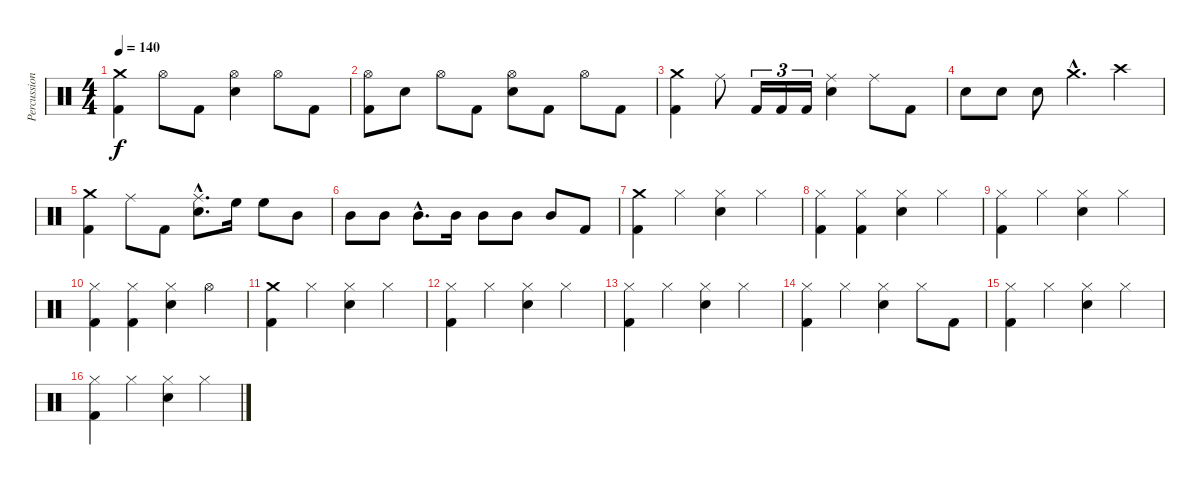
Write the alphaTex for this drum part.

\track ("Percussion" "Percussion") {instrument percussion}
\staff {score}
\articulation defaults
\ts (4 4)
\tempo 140
\clef neutral
\ks c
("Crash medium (hit)" "Kick (hit) 2").4{dy f} "Hi-Hat (open)".8 "Kick (hit) 2".8 ("Hi-Hat (open)" "Snare (hit) 2").4 "Hi-Hat (open)".8 "Kick (hit) 2".8 |
("Hi-Hat (open)" "Kick (hit) 2").8 "Snare (hit) 2".8 "Hi-Hat (open)".8 "Kick (hit) 2".8 ("Hi-Hat (open)" "Snare (hit) 2").8 "Kick (hit) 2".8 "Hi-Hat (open)".8 "Kick (hit) 2".8 |
("Crash medium (hit)" "Kick (hit) 2").4 "Ride (middle)".8 "Kick (hit) 2".16{tu (3 2)} "Kick (hit) 2".16{tu (3 2)} "Kick (hit) 2".16{tu (3 2)} ("Ride (middle)" "Snare (hit) 2").4 "Ride (middle)".8 "Kick (hit) 2".8 |
"Snare (hit) 2".8 "Snare (hit) 2".8 "Snare (hit) 2".8 "Crash medium (hit)"{hac}.4{d} "Crash high (hit)".4 |
("Crash medium (hit)" "Kick (hit) 2").4 "Ride (middle)".8 "Kick (hit) 2".8 ("Ride (middle)"{hac} "Snare (hit) 2"{hac}).8{d} "High Floor Tom (hit)".16 "High Floor Tom (hit)".8 "Mid Tom (hit)".8 |
"Mid Tom (hit)".8 "Mid Tom (hit)".8 "Mid Tom (hit)"{hac}.8{d} "Mid Tom (hit)".16 "Mid Tom (hit)".8 "Mid Tom (hit)".8 "Mid Tom (hit)".8 "Kick (hit) 2".8 |
("Crash medium (hit)" "Kick (hit) 2").4 "Hi-Hat (closed)".4 ("Hi-Hat (closed)" "Snare (hit) 2").4 "Hi-Hat (closed)".4 |
("Hi-Hat (closed)" "Kick (hit) 2").4 ("Hi-Hat (closed)" "Kick (hit) 2").4 ("Hi-Hat (closed)" "Snare (hit) 2").4 "Hi-Hat (closed)".4 |
("Hi-Hat (closed)" "Kick (hit) 2").4 "Hi-Hat (closed)".4 ("Hi-Hat (closed)" "Snare (hit) 2").4 "Hi-Hat (closed)".4 |
("Hi-Hat (closed)" "Kick (hit) 2").4 ("Hi-Hat (closed)" "Kick (hit) 2").4 ("Hi-Hat (closed)" "Snare (hit) 2").4 "Hi-Hat (open)".4 |
("Crash medium (hit)" "Kick (hit) 2").4 "Hi-Hat (closed)".4 ("Hi-Hat (closed)" "Snare (hit) 2").4 "Hi-Hat (closed)".4 |
("Hi-Hat (closed)" "Kick (hit) 2").4 "Hi-Hat (closed)".4 ("Hi-Hat (closed)" "Snare (hit) 2").4 "Hi-Hat (closed)".4 |
("Hi-Hat (closed)" "Kick (hit) 2").4 "Hi-Hat (closed)".4 ("Hi-Hat (closed)" "Snare (hit) 2").4 "Hi-Hat (closed)".4 |
("Hi-Hat (closed)" "Kick (hit) 2").4 "Hi-Hat (closed)".4 ("Hi-Hat (closed)" "Snare (hit) 2").4 "Hi-Hat (closed)".8 "Kick (hit) 2".8 |
("Hi-Hat (closed)" "Kick (hit) 2").4 "Hi-Hat (closed)".4 ("Hi-Hat (closed)" "Snare (hit) 2").4 "Hi-Hat (closed)".4 |
("Hi-Hat (closed)" "Kick (hit) 2").4 "Hi-Hat (closed)".4 ("Hi-Hat (closed)" "Snare (hit) 2").4 "Hi-Hat (closed)".4
